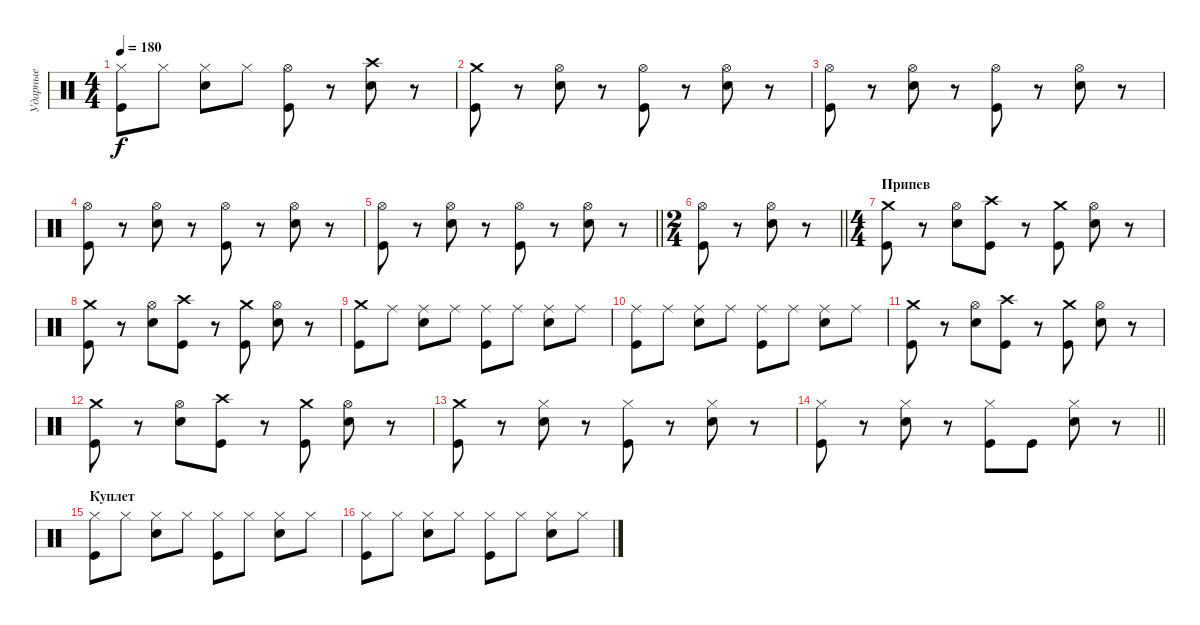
\track ("Ударные" "Ударные") {instrument percussion}
\staff {score}
\articulation defaults
\ts (4 4)
\tempo 180
\clef neutral
\ks c
("Hi-Hat (closed)" "Kick (hit)").8{dy f} "Hi-Hat (closed)".8 ("Hi-Hat (closed)" "Electric Snare (hit)").8 "Hi-Hat (closed)".8 ("Hi-Hat (open)" "Kick (hit)").8 r.8 ("Crash high (hit)" "Electric Snare (hit)").8 r.8 |
("Crash medium (hit)" "Kick (hit)").8 r.8 ("Hi-Hat (open)" "Electric Snare (hit)").8 r.8 ("Hi-Hat (open)" "Kick (hit)").8 r.8 ("Hi-Hat (open)" "Electric Snare (hit)").8 r.8 |
("Hi-Hat (open)" "Kick (hit)").8 r.8 ("Hi-Hat (open)" "Electric Snare (hit)").8 r.8 ("Hi-Hat (open)" "Kick (hit)").8 r.8 ("Hi-Hat (open)" "Electric Snare (hit)").8 r.8 |
("Hi-Hat (open)" "Kick (hit)").8 r.8 ("Hi-Hat (open)" "Electric Snare (hit)").8 r.8 ("Hi-Hat (open)" "Kick (hit)").8 r.8 ("Hi-Hat (open)" "Electric Snare (hit)").8 r.8 |
\barLineRight lightlight
("Hi-Hat (open)" "Kick (hit)").8 r.8 ("Hi-Hat (open)" "Electric Snare (hit)").8 r.8 ("Hi-Hat (open)" "Kick (hit)").8 r.8 ("Hi-Hat (open)" "Electric Snare (hit)").8 r.8 |
\ts (2 4)
\barLineRight lightlight
("Hi-Hat (open)" "Kick (hit)").8 r.8 ("Hi-Hat (open)" "Electric Snare (hit)").8 r.8 |
\ts (4 4)
\section ("" "Припев")
("Crash medium (hit)" "Kick (hit)").8 r.8 ("Hi-Hat (open)" "Electric Snare (hit)").8 ("Crash high (hit)" "Kick (hit)").8 r.8 ("Crash medium (hit)" "Kick (hit)").8 ("Hi-Hat (open)" "Electric Snare (hit)").8 r.8 |
("Crash medium (hit)" "Kick (hit)").8 r.8 ("Hi-Hat (open)" "Electric Snare (hit)").8 ("Crash high (hit)" "Kick (hit)").8 r.8 ("Crash medium (hit)" "Kick (hit)").8 ("Hi-Hat (open)" "Electric Snare (hit)").8 r.8 |
("Crash medium (hit)" "Kick (hit)").8 "Ride (middle)".8 ("Ride (middle)" "Electric Snare (hit)").8 "Ride (middle)".8 ("Ride (middle)" "Kick (hit)").8 "Ride (middle)".8 ("Ride (middle)" "Electric Snare (hit)").8 "Ride (middle)".8 |
("Ride (middle)" "Kick (hit)").8 "Ride (middle)".8 ("Ride (middle)" "Electric Snare (hit)").8 "Ride (middle)".8 ("Ride (middle)" "Kick (hit)").8 "Ride (middle)".8 ("Ride (middle)" "Electric Snare (hit)").8 "Ride (middle)".8 |
("Crash medium (hit)" "Kick (hit)").8 r.8 ("Hi-Hat (open)" "Electric Snare (hit)").8 ("Crash high (hit)" "Kick (hit)").8 r.8 ("Crash medium (hit)" "Kick (hit)").8 ("Hi-Hat (open)" "Electric Snare (hit)").8 r.8 |
("Crash medium (hit)" "Kick (hit)").8 r.8 ("Hi-Hat (open)" "Electric Snare (hit)").8 ("Crash high (hit)" "Kick (hit)").8 r.8 ("Crash medium (hit)" "Kick (hit)").8 ("Hi-Hat (open)" "Electric Snare (hit)").8 r.8 |
("Crash medium (hit)" "Kick (hit)").8 r.8 ("Hi-Hat (closed)" "Electric Snare (hit)").8 r.8 ("Hi-Hat (closed)" "Kick (hit)").8 r.8 ("Hi-Hat (closed)" "Electric Snare (hit)").8 r.8 |
\barLineRight lightlight
("Hi-Hat (closed)" "Kick (hit)").8 r.8 ("Hi-Hat (closed)" "Electric Snare (hit)").8 r.8 ("Hi-Hat (closed)" "Kick (hit)").8 "Kick (hit)".8 ("Hi-Hat (closed)" "Electric Snare (hit)").8 r.8 |
\section ("" "Куплет")
("Hi-Hat (closed)" "Kick (hit)").8 "Hi-Hat (closed)".8 ("Hi-Hat (closed)" "Electric Snare (hit)").8 "Hi-Hat (closed)".8 ("Hi-Hat (closed)" "Kick (hit)").8 "Hi-Hat (closed)".8 ("Hi-Hat (closed)" "Electric Snare (hit)").8 "Hi-Hat (closed)".8 |
("Hi-Hat (closed)" "Kick (hit)").8 "Hi-Hat (closed)".8 ("Hi-Hat (closed)" "Electric Snare (hit)").8 "Hi-Hat (closed)".8 ("Hi-Hat (closed)" "Kick (hit)").8 "Hi-Hat (closed)".8 ("Hi-Hat (closed)" "Electric Snare (hit)").8 "Hi-Hat (closed)".8
